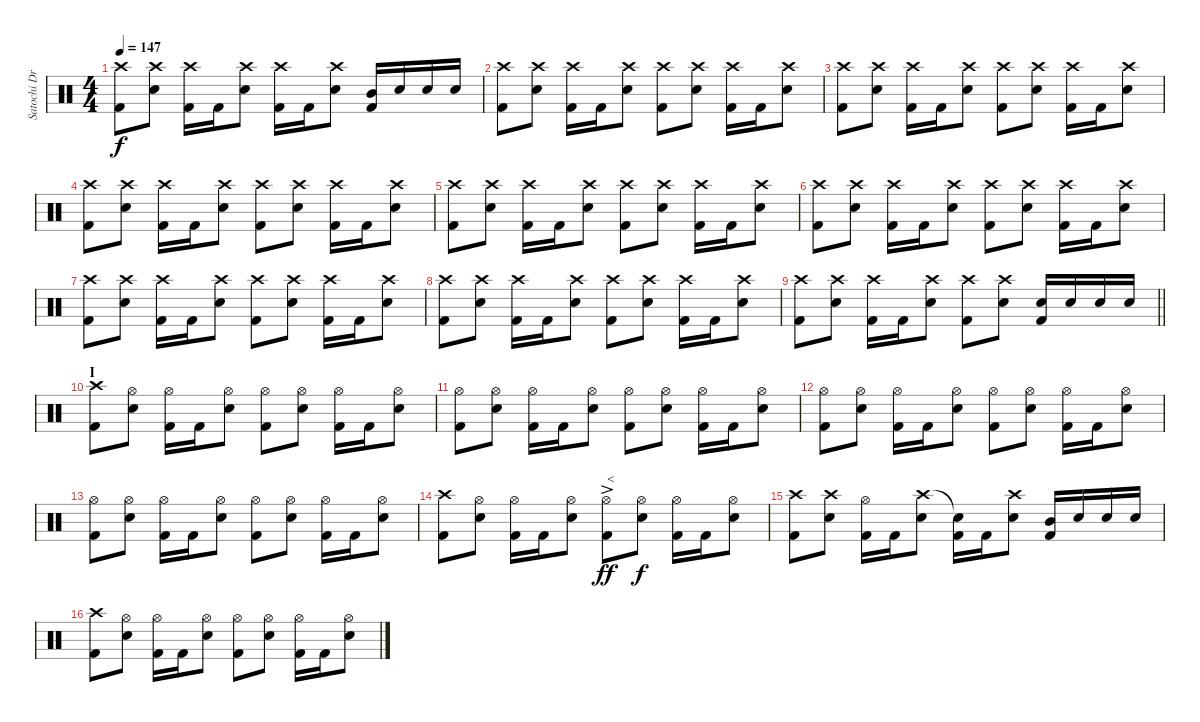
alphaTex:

\track ("Satochi Drums" "Satochi Dr") {instrument percussion}
\staff {score}
\articulation defaults
\ts (4 4)
\tempo 147
\clef neutral
\ks c
("Crash high (hit)" "Kick (hit) 2").8{dy f} ("Crash high (hit)" "Snare (hit) 2").8 ("Crash high (hit)" "Kick (hit) 2").16 "Kick (hit) 2".16 ("Crash high (hit)" "Snare (hit) 2").8 ("Crash high (hit)" "Kick (hit) 2").16 "Kick (hit) 2".16 ("Crash high (hit)" "Snare (hit) 2").8 ("Mid Tom (hit)" "Kick (hit) 2").16 "Snare (hit) 2".16 "Snare (hit) 2".16 "Snare (hit) 2".16 |
("Crash high (hit)" "Kick (hit) 2").8 ("Crash high (hit)" "Snare (hit) 2").8 ("Crash high (hit)" "Kick (hit) 2").16 "Kick (hit) 2".16 ("Crash high (hit)" "Snare (hit) 2").8 ("Crash high (hit)" "Kick (hit) 2").8 ("Crash high (hit)" "Snare (hit) 2").8 ("Crash high (hit)" "Kick (hit) 2").16 "Kick (hit) 2".16 ("Snare (hit) 2" "Crash high (hit)").8 |
("Crash high (hit)" "Kick (hit) 2").8 ("Crash high (hit)" "Snare (hit) 2").8 ("Crash high (hit)" "Kick (hit) 2").16 "Kick (hit) 2".16 ("Crash high (hit)" "Snare (hit) 2").8 ("Crash high (hit)" "Kick (hit) 2").8 ("Crash high (hit)" "Snare (hit) 2").8 ("Crash high (hit)" "Kick (hit) 2").16 "Kick (hit) 2".16 ("Snare (hit) 2" "Crash high (hit)").8 |
("Crash high (hit)" "Kick (hit) 2").8 ("Crash high (hit)" "Snare (hit) 2").8 ("Crash high (hit)" "Kick (hit) 2").16 "Kick (hit) 2".16 ("Crash high (hit)" "Snare (hit) 2").8 ("Crash high (hit)" "Kick (hit) 2").8 ("Crash high (hit)" "Snare (hit) 2").8 ("Crash high (hit)" "Kick (hit) 2").16 "Kick (hit) 2".16 ("Snare (hit) 2" "Crash high (hit)").8 |
("Crash high (hit)" "Kick (hit) 2").8 ("Crash high (hit)" "Snare (hit) 2").8 ("Crash high (hit)" "Kick (hit) 2").16 "Kick (hit) 2".16 ("Crash high (hit)" "Snare (hit) 2").8 ("Crash high (hit)" "Kick (hit) 2").8 ("Crash high (hit)" "Snare (hit) 2").8 ("Crash high (hit)" "Kick (hit) 2").16 "Kick (hit) 2".16 ("Snare (hit) 2" "Crash high (hit)").8 |
("Crash high (hit)" "Kick (hit) 2").8 ("Crash high (hit)" "Snare (hit) 2").8 ("Crash high (hit)" "Kick (hit) 2").16 "Kick (hit) 2".16 ("Crash high (hit)" "Snare (hit) 2").8 ("Crash high (hit)" "Kick (hit) 2").8 ("Crash high (hit)" "Snare (hit) 2").8 ("Crash high (hit)" "Kick (hit) 2").16 "Kick (hit) 2".16 ("Snare (hit) 2" "Crash high (hit)").8 |
("Crash high (hit)" "Kick (hit) 2").8 ("Crash high (hit)" "Snare (hit) 2").8 ("Crash high (hit)" "Kick (hit) 2").16 "Kick (hit) 2".16 ("Crash high (hit)" "Snare (hit) 2").8 ("Crash high (hit)" "Kick (hit) 2").8 ("Crash high (hit)" "Snare (hit) 2").8 ("Crash high (hit)" "Kick (hit) 2").16 "Kick (hit) 2".16 ("Snare (hit) 2" "Crash high (hit)").8 |
("Crash high (hit)" "Kick (hit) 2").8 ("Crash high (hit)" "Snare (hit) 2").8 ("Crash high (hit)" "Kick (hit) 2").16 "Kick (hit) 2".16 ("Crash high (hit)" "Snare (hit) 2").8 ("Crash high (hit)" "Kick (hit) 2").8 ("Crash high (hit)" "Snare (hit) 2").8 ("Crash high (hit)" "Kick (hit) 2").16 "Kick (hit) 2".16 ("Crash high (hit)" "Snare (hit) 2").8 |
\barLineRight lightlight
("Crash high (hit)" "Kick (hit) 2").8 ("Crash high (hit)" "Snare (hit) 2").8 ("Crash high (hit)" "Kick (hit) 2").16 "Kick (hit) 2".16 ("Crash high (hit)" "Snare (hit) 2").8 ("Crash high (hit)" "Kick (hit) 2").8 ("Crash high (hit)" "Snare (hit) 2").8 ("Snare (hit) 2" "Kick (hit) 2").16 "Snare (hit) 2".16 "Snare (hit) 2".16 "Snare (hit) 2".16 |
\section ("" "I")
("Crash high (hit)" "Kick (hit) 2").8 ("Hi-Hat (open)" "Snare (hit) 2").8 ("Hi-Hat (open)" "Kick (hit) 2").16 "Kick (hit) 2".16 ("Hi-Hat (open)" "Snare (hit) 2").8 ("Hi-Hat (open)" "Kick (hit) 2").8 ("Hi-Hat (open)" "Snare (hit) 2").8 ("Hi-Hat (open)" "Kick (hit) 2").16 "Kick (hit) 2".16 ("Hi-Hat (open)" "Snare (hit) 2").8 |
("Hi-Hat (open)" "Kick (hit) 2").8 ("Hi-Hat (open)" "Snare (hit) 2").8 ("Hi-Hat (open)" "Kick (hit) 2").16 "Kick (hit) 2".16 ("Hi-Hat (open)" "Snare (hit) 2").8 ("Hi-Hat (open)" "Kick (hit) 2").8 ("Hi-Hat (open)" "Snare (hit) 2").8 ("Hi-Hat (open)" "Kick (hit) 2").16 "Kick (hit) 2".16 ("Hi-Hat (open)" "Snare (hit) 2").8 |
("Hi-Hat (open)" "Kick (hit) 2").8 ("Hi-Hat (open)" "Snare (hit) 2").8 ("Hi-Hat (open)" "Kick (hit) 2").16 "Kick (hit) 2".16 ("Hi-Hat (open)" "Snare (hit) 2").8 ("Hi-Hat (open)" "Kick (hit) 2").8 ("Hi-Hat (open)" "Snare (hit) 2").8 ("Hi-Hat (open)" "Kick (hit) 2").16 "Kick (hit) 2".16 ("Hi-Hat (open)" "Snare (hit) 2").8 |
("Hi-Hat (open)" "Kick (hit) 2").8 ("Hi-Hat (open)" "Snare (hit) 2").8 ("Hi-Hat (open)" "Kick (hit) 2").16 "Kick (hit) 2".16 ("Hi-Hat (open)" "Snare (hit) 2").8 ("Hi-Hat (open)" "Kick (hit) 2").8 ("Hi-Hat (open)" "Snare (hit) 2").8 ("Hi-Hat (open)" "Kick (hit) 2").16 "Kick (hit) 2".16 ("Hi-Hat (open)" "Snare (hit) 2").8 |
("Crash high (hit)" "Kick (hit) 2").8 ("Hi-Hat (open)" "Snare (hit) 2").8 ("Hi-Hat (open)" "Kick (hit) 2").16 "Kick (hit) 2".16 ("Hi-Hat (open)" "Snare (hit) 2").8 ("Hi-Hat (open)"{ac} "Kick (hit) 2").8{txt "<" dy ff} ("Hi-Hat (open)" "Snare (hit) 2").8{dy f} ("Hi-Hat (open)" "Kick (hit) 2").16 "Kick (hit) 2".16 ("Hi-Hat (open)" "Snare (hit) 2").8 |
("Crash high (hit)" "Kick (hit) 2").8 ("Crash high (hit)" "Snare (hit) 2").8 ("Hi-Hat (open)" "Kick (hit) 2").16 "Kick (hit) 2".16 ("Crash high (hit)" "Snare (hit) 2").8 ("Snare (hit)"{t} "Kick (hit) 2").16 "Kick (hit) 2".16 ("Crash high (hit)" "Snare (hit) 2").8 ("Mid Tom (hit)" "Kick (hit) 2").16 "Snare (hit) 2".16 "Snare (hit) 2".16 "Snare (hit) 2".16 |
("Crash high (hit)" "Kick (hit) 2").8 ("Hi-Hat (open)" "Snare (hit) 2").8 ("Hi-Hat (open)" "Kick (hit) 2").16 "Kick (hit) 2".16 ("Hi-Hat (open)" "Snare (hit) 2").8 ("Hi-Hat (open)" "Kick (hit) 2").8 ("Hi-Hat (open)" "Snare (hit) 2").8 ("Hi-Hat (open)" "Kick (hit) 2").16 "Kick (hit) 2".16 ("Hi-Hat (open)" "Snare (hit) 2").8
